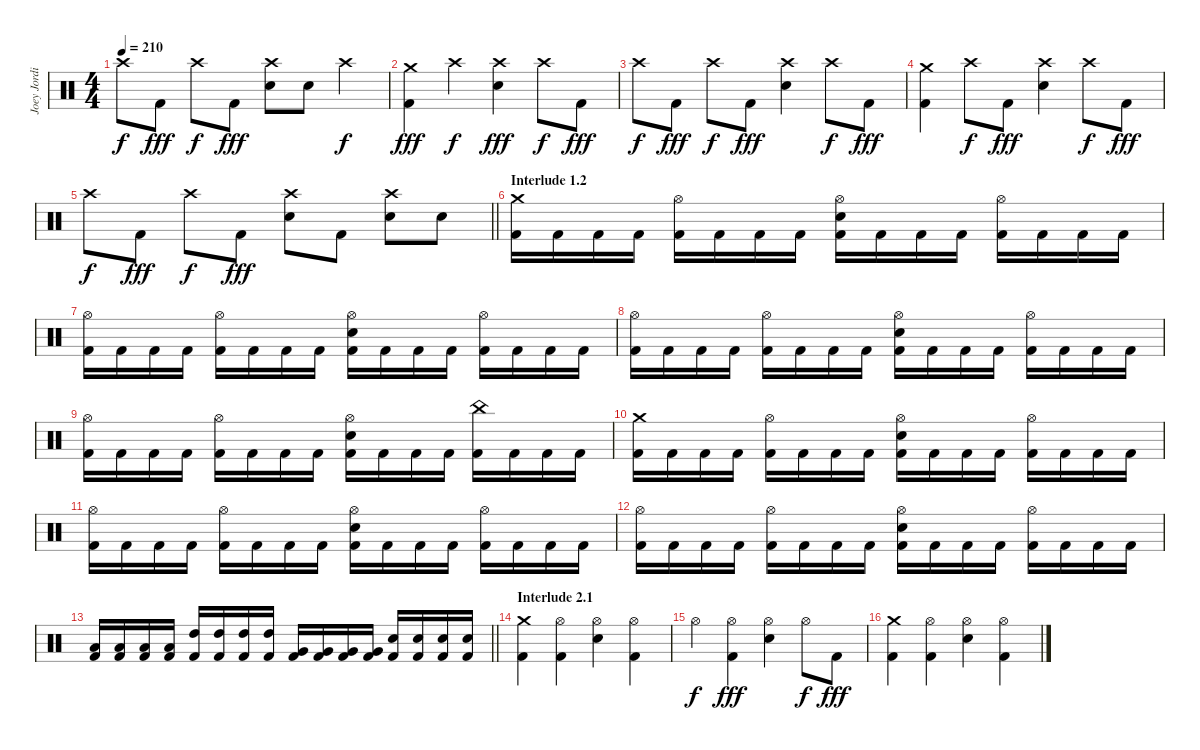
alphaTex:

\track ("Joey Jordison" "Joey Jordi") {instrument percussion}
\staff {score}
\articulation defaults
\ts (4 4)
\tempo 210
\clef neutral
\ks c "Crash high (hit)".8{dy f} "Kick (hit) 2".8{dy fff} "Crash high (hit)".8{dy f} "Kick (hit) 2".8{dy fff}
("Crash high (hit)" "Electric Snare (hit)").8 "Electric Snare (hit)".8 "Crash high (hit)".4{dy f} |
("Crash medium (hit)" "Kick (hit) 2").4{dy fff} "Crash high (hit)".4{dy f} ("Crash high (hit)" "Electric Snare (hit)").4{dy fff} "Crash high (hit)".8{dy f} "Kick (hit) 2".8{dy fff} |
"Crash high (hit)".8{dy f} "Kick (hit) 2".8{dy fff} "Crash high (hit)".8{dy f} "Kick (hit) 2".8{dy fff} ("Crash high (hit)" "Electric Snare (hit)").4 "Crash high (hit)".8{dy f} "Kick (hit) 2".8{dy fff} |
("Crash medium (hit)" "Kick (hit) 2").4 "Crash high (hit)".8{dy f} "Kick (hit) 2".8{dy fff} ("Crash high (hit)" "Electric Snare (hit)").4 "Crash high (hit)".8{dy f} "Kick (hit) 2".8{dy fff} |
\barLineRight lightlight "Crash high (hit)".8{dy f} "Kick (hit) 2".8{dy fff} "Crash high (hit)".8{dy f} "Kick (hit) 2".8{dy fff}
("Crash high (hit)" "Electric Snare (hit)").8 "Kick (hit) 2".8 ("Crash high (hit)" "Electric Snare (hit)").8 "Electric Snare (hit)".8 |
\section ("" "Interlude 1.2")
("Crash medium (hit)" "Kick (hit) 2").16 "Kick (hit) 2".16 "Kick (hit) 2".16 "Kick (hit) 2".16 ("Hi-Hat (open)" "Kick (hit) 2").16 "Kick (hit) 2".16 "Kick (hit) 2".16 "Kick (hit) 2".16 ("Hi-Hat (open)" "Electric Snare (hit)" "Kick (hit) 2").16 "Kick (hit) 2".16 "Kick (hit) 2".16 "Kick (hit) 2".16 ("Hi-Hat (open)" "Kick (hit) 2").16 "Kick (hit) 2".16 "Kick (hit) 2".16 "Kick (hit) 2".16 |
("Hi-Hat (open)" "Kick (hit) 2").16 "Kick (hit) 2".16 "Kick (hit) 2".16 "Kick (hit) 2".16 ("Hi-Hat (open)" "Kick (hit) 2").16 "Kick (hit) 2".16 "Kick (hit) 2".16 "Kick (hit) 2".16 ("Hi-Hat (open)" "Electric Snare (hit)" "Kick (hit) 2").16 "Kick (hit) 2".16 "Kick (hit) 2".16 "Kick (hit) 2".16 ("Hi-Hat (open)" "Kick (hit) 2").16 "Kick (hit) 2".16 "Kick (hit) 2".16 "Kick (hit) 2".16 |
("Hi-Hat (open)" "Kick (hit) 2").16 "Kick (hit) 2".16 "Kick (hit) 2".16 "Kick (hit) 2".16 ("Hi-Hat (open)" "Kick (hit) 2").16 "Kick (hit) 2".16 "Kick (hit) 2".16 "Kick (hit) 2".16 ("Hi-Hat (open)" "Electric Snare (hit)" "Kick (hit) 2").16 "Kick (hit) 2".16 "Kick (hit) 2".16 "Kick (hit) 2".16 ("Hi-Hat (open)" "Kick (hit) 2").16 "Kick (hit) 2".16 "Kick (hit) 2".16 "Kick (hit) 2".16 |
("Hi-Hat (open)" "Kick (hit) 2").16 "Kick (hit) 2".16 "Kick (hit) 2".16 "Kick (hit) 2".16 ("Hi-Hat (open)" "Kick (hit) 2").16 "Kick (hit) 2".16 "Kick (hit) 2".16 "Kick (hit) 2".16 ("Hi-Hat (open)" "Electric Snare (hit)" "Kick (hit) 2").16 "Kick (hit) 2".16 "Kick (hit) 2".16 "Kick (hit) 2".16 ("China (hit)" "Kick (hit) 2").16 "Kick (hit) 2".16 "Kick (hit) 2".16 "Kick (hit) 2".16 |
("Crash medium (hit)" "Kick (hit) 2").16 "Kick (hit) 2".16 "Kick (hit) 2".16 "Kick (hit) 2".16 ("Hi-Hat (open)" "Kick (hit) 2").16 "Kick (hit) 2".16 "Kick (hit) 2".16 "Kick (hit) 2".16 ("Hi-Hat (open)" "Electric Snare (hit)" "Kick (hit) 2").16 "Kick (hit) 2".16 "Kick (hit) 2".16 "Kick (hit) 2".16 ("Hi-Hat (open)" "Kick (hit) 2").16 "Kick (hit) 2".16 "Kick (hit) 2".16 "Kick (hit) 2".16 |
("Hi-Hat (open)" "Kick (hit) 2").16 "Kick (hit) 2".16 "Kick (hit) 2".16 "Kick (hit) 2".16 ("Hi-Hat (open)" "Kick (hit) 2").16 "Kick (hit) 2".16 "Kick (hit) 2".16 "Kick (hit) 2".16 ("Hi-Hat (open)" "Electric Snare (hit)" "Kick (hit) 2").16 "Kick (hit) 2".16 "Kick (hit) 2".16 "Kick (hit) 2".16 ("Hi-Hat (open)" "Kick (hit) 2").16 "Kick (hit) 2".16 "Kick (hit) 2".16 "Kick (hit) 2".16 |
("Hi-Hat (open)" "Kick (hit) 2").16 "Kick (hit) 2".16 "Kick (hit) 2".16 "Kick (hit) 2".16 ("Hi-Hat (open)" "Kick (hit) 2").16 "Kick (hit) 2".16 "Kick (hit) 2".16 "Kick (hit) 2".16 ("Hi-Hat (open)" "Electric Snare (hit)" "Kick (hit) 2").16 "Kick (hit) 2".16 "Kick (hit) 2".16 "Kick (hit) 2".16 ("Hi-Hat (open)" "Kick (hit) 2").16 "Kick (hit) 2".16 "Kick (hit) 2".16 "Kick (hit) 2".16 |
\barLineRight lightlight
("Low Tom (hit)" "Kick (hit) 2").16 ("Low Tom (hit)" "Kick (hit) 2").16 ("Low Tom (hit)" "Kick (hit) 2").16 ("Low Tom (hit)" "Kick (hit) 2").16 ("High Tom (hit)" "Kick (hit) 2").16 ("High Tom (hit)" "Kick (hit) 2").16 ("High Tom (hit)" "Kick (hit) 2").16 ("High Tom (hit)" "Kick (hit) 2").16 ("Very Low Tom (hit)" "Kick (hit) 2").16 ("Very Low Tom (hit)" "Kick (hit) 2").16 ("Very Low Tom (hit)" "Kick (hit) 2").16 ("Very Low Tom (hit)" "Kick (hit) 2").16 ("Electric Snare (hit)" "Kick (hit) 2").16 ("Electric Snare (hit)" "Kick (hit) 2").16 ("Electric Snare (hit)" "Kick (hit) 2").16 ("Electric Snare (hit)" "Kick (hit) 2").16 |
\section ("" "Interlude 2.1")
("Crash medium (hit)" "Kick (hit) 2").4 ("Hi-Hat (open)" "Kick (hit) 2").4 ("Hi-Hat (open)" "Electric Snare (hit)").4 ("Hi-Hat (open)" "Kick (hit) 2").4 |
"Hi-Hat (open)".4{dy f} ("Hi-Hat (open)" "Kick (hit) 2").4{dy fff} ("Hi-Hat (open)" "Electric Snare (hit)").4 "Hi-Hat (open)".8{dy f} "Kick (hit) 2".8{dy fff} |
("Crash medium (hit)" "Kick (hit) 2").4 ("Hi-Hat (open)" "Kick (hit) 2").4 ("Hi-Hat (open)" "Electric Snare (hit)").4 ("Hi-Hat (open)" "Kick (hit) 2").4
